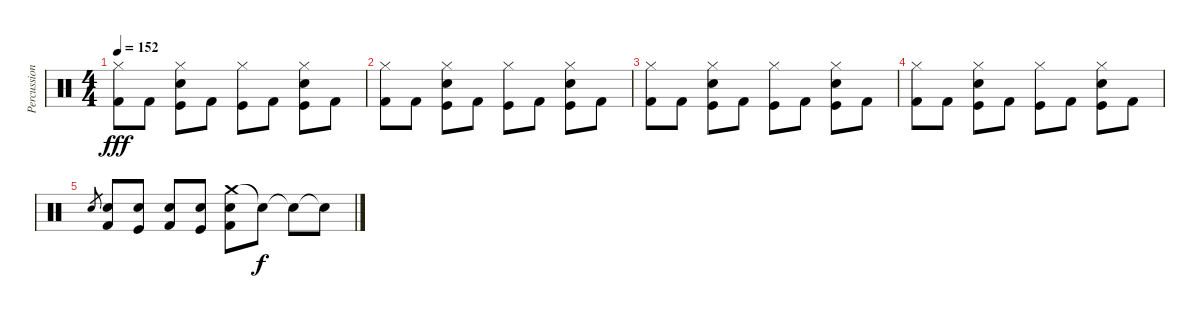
\track ("Percussions" "Percussion") {instrument percussion}
\staff {score}
\articulation defaults
\ts (4 4)
\tempo 152
\clef neutral
\ks c
("Hi-Hat (closed)" "Kick (hit) 2").8{dy fff} "Kick (hit) 2".8 ("Hi-Hat (closed)" "Snare (hit) 2" "Kick (hit)").8 "Kick (hit) 2".8 ("Hi-Hat (closed)" "Kick (hit)").8 "Kick (hit) 2".8 ("Hi-Hat (closed)" "Snare (hit) 2" "Kick (hit)").8 "Kick (hit) 2".8 |
("Hi-Hat (closed)" "Kick (hit) 2").8 "Kick (hit) 2".8 ("Hi-Hat (closed)" "Snare (hit) 2" "Kick (hit)").8 "Kick (hit) 2".8 ("Hi-Hat (closed)" "Kick (hit)").8 "Kick (hit) 2".8 ("Hi-Hat (closed)" "Snare (hit) 2" "Kick (hit)").8 "Kick (hit) 2".8 |
("Hi-Hat (closed)" "Kick (hit) 2").8 "Kick (hit) 2".8 ("Hi-Hat (closed)" "Snare (hit) 2" "Kick (hit)").8 "Kick (hit) 2".8 ("Hi-Hat (closed)" "Kick (hit)").8 "Kick (hit) 2".8 ("Hi-Hat (closed)" "Snare (hit) 2" "Kick (hit)").8 "Kick (hit) 2".8 |
("Hi-Hat (closed)" "Kick (hit) 2").8 "Kick (hit) 2".8 ("Hi-Hat (closed)" "Snare (hit) 2" "Kick (hit)").8 "Kick (hit) 2".8 ("Hi-Hat (closed)" "Kick (hit)").8 "Kick (hit) 2".8 ("Hi-Hat (closed)" "Snare (hit) 2" "Kick (hit)").8 "Kick (hit) 2".8 |
"Snare (hit) 2".8{gr} ("Snare (hit) 2" "Kick (hit) 2").8 ("Snare (hit) 2" "Kick (hit)").8 ("Snare (hit) 2" "Kick (hit) 2").8 ("Snare (hit) 2" "Kick (hit)").8 ("Crash medium (hit)" "Snare (hit) 2" "Kick (hit) 2").8 "Snare (hit)"{t}.8{dy f} "Snare (hit)"{t}.8 "Snare (hit)"{t}.8
